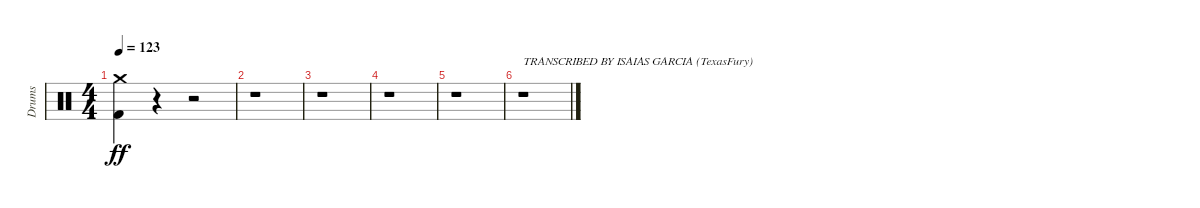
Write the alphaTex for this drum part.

\track ("Drums" "Drums") {instrument percussion}
\staff {score}
\articulation defaults
\ts (4 4)
\tempo 123
\clef neutral
\ks c
("Kick (hit) 2" "Crash medium (hit)").4{dy ff} r.4 r.2 |
r.1 |
r.1 |
r.1 |
r.1 |
r.1{txt "TRANSCRIBED BY ISAIAS GARCIA (TexasFury)"}
